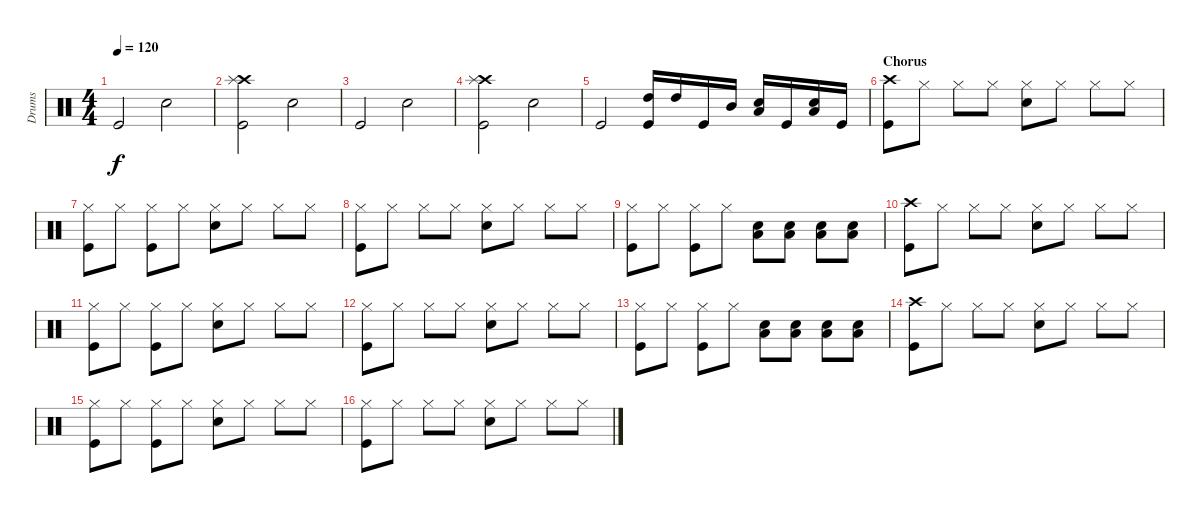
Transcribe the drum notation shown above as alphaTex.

\track ("Drums" "Drums") {instrument percussion}
\staff {score}
\articulation defaults
\ts (4 4)
\tempo 120
\clef neutral
\ks c "Kick (hit)".2{dy f} "Snare (hit) 2".2
|
("Crash high (hit)" "Splash (hit)" "Kick (hit)").2 "Snare (hit) 2".2 |
"Kick (hit)".2 "Snare (hit) 2".2 |
("Crash high (hit)" "Splash (hit)" "Kick (hit)").2 "Snare (hit) 2".2 |
"Kick (hit)".2 ("High Tom (hit)" "Kick (hit)").16 "High Tom (hit)".16 "Kick (hit)".16 "Mid Tom (hit)".16 ("Low Tom (hit)" "Snare (hit) 2").16 "Kick (hit)".16 ("Low Tom (hit)" "Snare (hit) 2").16 "Kick (hit)".16 |
\section ("" "Chorus")
("Crash high (hit)" "Kick (hit)").8 "Hi-Hat (closed)".8 "Hi-Hat (closed)".8 "Hi-Hat (closed)".8 ("Hi-Hat (closed)" "Snare (hit) 2").8 "Hi-Hat (closed)".8 "Hi-Hat (closed)".8 "Hi-Hat (closed)".8 |
("Hi-Hat (closed)" "Kick (hit)").8 "Hi-Hat (closed)".8 ("Hi-Hat (closed)" "Kick (hit)").8 "Hi-Hat (closed)".8 ("Hi-Hat (closed)" "Snare (hit) 2").8 "Hi-Hat (closed)".8 "Hi-Hat (closed)".8 "Hi-Hat (closed)".8 |
("Hi-Hat (closed)" "Kick (hit)").8 "Hi-Hat (closed)".8 "Hi-Hat (closed)".8 "Hi-Hat (closed)".8 ("Hi-Hat (closed)" "Snare (hit) 2").8 "Hi-Hat (closed)".8 "Hi-Hat (closed)".8 "Hi-Hat (closed)".8 |
("Hi-Hat (closed)" "Kick (hit)").8 "Hi-Hat (closed)".8 ("Hi-Hat (closed)" "Kick (hit)").8 "Hi-Hat (closed)".8 ("Low Tom (hit)" "Snare (hit) 2").8 ("Low Tom (hit)" "Snare (hit) 2").8 ("Low Tom (hit)" "Snare (hit) 2").8 ("Low Tom (hit)" "Snare (hit) 2").8 |
("Crash high (hit)" "Kick (hit)").8 "Hi-Hat (closed)".8 "Hi-Hat (closed)".8 "Hi-Hat (closed)".8 ("Hi-Hat (closed)" "Snare (hit) 2").8 "Hi-Hat (closed)".8 "Hi-Hat (closed)".8 "Hi-Hat (closed)".8 |
("Hi-Hat (closed)" "Kick (hit)").8 "Hi-Hat (closed)".8 ("Hi-Hat (closed)" "Kick (hit)").8 "Hi-Hat (closed)".8 ("Hi-Hat (closed)" "Snare (hit) 2").8 "Hi-Hat (closed)".8 "Hi-Hat (closed)".8 "Hi-Hat (closed)".8 |
("Hi-Hat (closed)" "Kick (hit)").8 "Hi-Hat (closed)".8 "Hi-Hat (closed)".8 "Hi-Hat (closed)".8 ("Hi-Hat (closed)" "Snare (hit) 2").8 "Hi-Hat (closed)".8 "Hi-Hat (closed)".8 "Hi-Hat (closed)".8 |
("Hi-Hat (closed)" "Kick (hit)").8 "Hi-Hat (closed)".8 ("Hi-Hat (closed)" "Kick (hit)").8 "Hi-Hat (closed)".8 ("Low Tom (hit)" "Snare (hit) 2").8 ("Low Tom (hit)" "Snare (hit) 2").8 ("Low Tom (hit)" "Snare (hit) 2").8 ("Low Tom (hit)" "Snare (hit) 2").8 |
("Crash high (hit)" "Kick (hit)").8 "Hi-Hat (closed)".8 "Hi-Hat (closed)".8 "Hi-Hat (closed)".8 ("Hi-Hat (closed)" "Snare (hit) 2").8 "Hi-Hat (closed)".8 "Hi-Hat (closed)".8 "Hi-Hat (closed)".8 |
("Hi-Hat (closed)" "Kick (hit)").8 "Hi-Hat (closed)".8 ("Hi-Hat (closed)" "Kick (hit)").8 "Hi-Hat (closed)".8 ("Hi-Hat (closed)" "Snare (hit) 2").8 "Hi-Hat (closed)".8 "Hi-Hat (closed)".8 "Hi-Hat (closed)".8 |
("Hi-Hat (closed)" "Kick (hit)").8 "Hi-Hat (closed)".8 "Hi-Hat (closed)".8 "Hi-Hat (closed)".8 ("Hi-Hat (closed)" "Snare (hit) 2").8 "Hi-Hat (closed)".8 "Hi-Hat (closed)".8 "Hi-Hat (closed)".8
